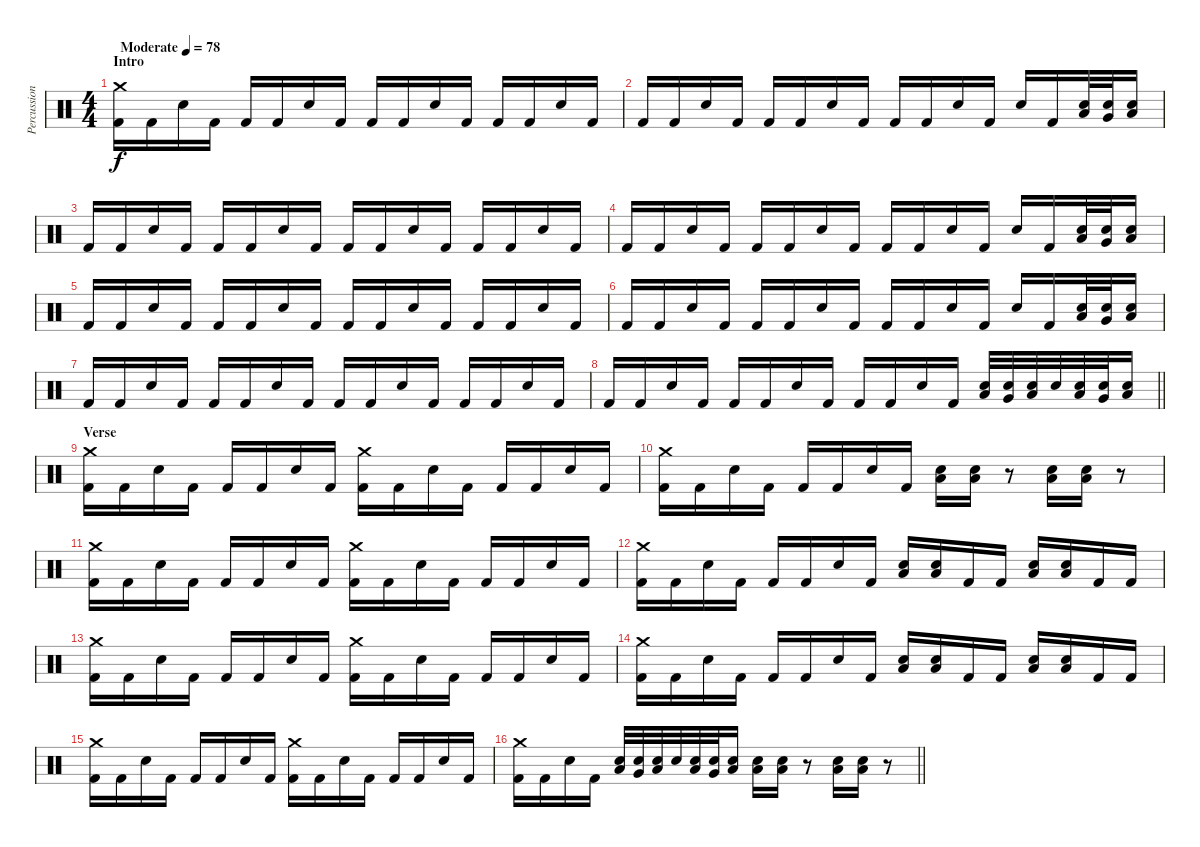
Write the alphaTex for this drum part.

\track ("Percussion" "Percussion") {instrument percussion}
\staff {score}
\articulation defaults
\ts (4 4)
\section ("" "Intro")
\tempo (78 "Moderate")
\clef neutral
\ks c
("Crash medium (hit)" "Kick (hit) 2").16{dy f} "Kick (hit) 2".16 "Snare (hit) 2".16 "Kick (hit) 2".16 "Kick (hit) 2".16 "Kick (hit) 2".16 "Snare (hit) 2".16 "Kick (hit) 2".16 "Kick (hit) 2".16 "Kick (hit) 2".16 "Snare (hit) 2".16 "Kick (hit) 2".16 "Kick (hit) 2".16 "Kick (hit) 2".16 "Snare (hit) 2".16 "Kick (hit) 2".16 |
"Kick (hit) 2".16 "Kick (hit) 2".16 "Snare (hit) 2".16 "Kick (hit) 2".16 "Kick (hit) 2".16 "Kick (hit) 2".16 "Snare (hit) 2".16 "Kick (hit) 2".16 "Kick (hit) 2".16 "Kick (hit) 2".16 "Snare (hit) 2".16 "Kick (hit) 2".16 "Snare (hit) 2".16 "Kick (hit) 2".16 ("Snare (hit) 2" "Low Tom (hit)").32 ("Snare (hit) 2" "Very Low Tom (hit)").32 ("Snare (hit) 2" "Low Floor Tom (hit)").16 |
"Kick (hit) 2".16 "Kick (hit) 2".16 "Snare (hit) 2".16 "Kick (hit) 2".16 "Kick (hit) 2".16 "Kick (hit) 2".16 "Snare (hit) 2".16 "Kick (hit) 2".16 "Kick (hit) 2".16 "Kick (hit) 2".16 "Snare (hit) 2".16 "Kick (hit) 2".16 "Kick (hit) 2".16 "Kick (hit) 2".16 "Snare (hit) 2".16 "Kick (hit) 2".16 |
"Kick (hit) 2".16 "Kick (hit) 2".16 "Snare (hit) 2".16 "Kick (hit) 2".16 "Kick (hit) 2".16 "Kick (hit) 2".16 "Snare (hit) 2".16 "Kick (hit) 2".16 "Kick (hit) 2".16 "Kick (hit) 2".16 "Snare (hit) 2".16 "Kick (hit) 2".16 "Snare (hit) 2".16 "Kick (hit) 2".16 ("Snare (hit) 2" "Low Tom (hit)").32 ("Snare (hit) 2" "Very Low Tom (hit)").32 ("Snare (hit) 2" "Low Floor Tom (hit)").16 |
"Kick (hit) 2".16 "Kick (hit) 2".16 "Snare (hit) 2".16 "Kick (hit) 2".16 "Kick (hit) 2".16 "Kick (hit) 2".16 "Snare (hit) 2".16 "Kick (hit) 2".16 "Kick (hit) 2".16 "Kick (hit) 2".16 "Snare (hit) 2".16 "Kick (hit) 2".16 "Kick (hit) 2".16 "Kick (hit) 2".16 "Snare (hit) 2".16 "Kick (hit) 2".16 |
"Kick (hit) 2".16 "Kick (hit) 2".16 "Snare (hit) 2".16 "Kick (hit) 2".16 "Kick (hit) 2".16 "Kick (hit) 2".16 "Snare (hit) 2".16 "Kick (hit) 2".16 "Kick (hit) 2".16 "Kick (hit) 2".16 "Snare (hit) 2".16 "Kick (hit) 2".16 "Snare (hit) 2".16 "Kick (hit) 2".16 ("Snare (hit) 2" "Low Tom (hit)").32 ("Snare (hit) 2" "Very Low Tom (hit)").32 ("Snare (hit) 2" "Low Floor Tom (hit)").16 |
"Kick (hit) 2".16 "Kick (hit) 2".16 "Snare (hit) 2".16 "Kick (hit) 2".16 "Kick (hit) 2".16 "Kick (hit) 2".16 "Snare (hit) 2".16 "Kick (hit) 2".16 "Kick (hit) 2".16 "Kick (hit) 2".16 "Snare (hit) 2".16 "Kick (hit) 2".16 "Kick (hit) 2".16 "Kick (hit) 2".16 "Snare (hit) 2".16 "Kick (hit) 2".16 |
\barLineRight lightlight "Kick (hit) 2".16 "Kick (hit) 2".16 "Snare (hit) 2".16 "Kick (hit) 2".16 "Kick (hit) 2".16 "Kick (hit) 2".16 "Snare (hit) 2".16 "Kick (hit) 2".16 "Kick (hit) 2".16 "Kick (hit) 2".16 "Snare (hit) 2".16 "Kick (hit) 2".16
("Snare (hit) 2" "Low Tom (hit)").32 ("Snare (hit) 2" "Very Low Tom (hit)").32 ("Snare (hit) 2" "Low Floor Tom (hit)").32 "Snare (hit) 2".32 ("Snare (hit) 2" "Low Tom (hit)").32 ("Snare (hit) 2" "Very Low Tom (hit)").32 ("Snare (hit) 2" "Low Floor Tom (hit)").16 |
\section ("" "Verse")
("Crash medium (hit)" "Kick (hit) 2").16 "Kick (hit) 2".16 "Snare (hit) 2".16 "Kick (hit) 2".16 "Kick (hit) 2".16 "Kick (hit) 2".16 "Snare (hit) 2".16 "Kick (hit) 2".16 ("Crash medium (hit)" "Kick (hit) 2").16 "Kick (hit) 2".16 "Snare (hit) 2".16 "Kick (hit) 2".16 "Kick (hit) 2".16 "Kick (hit) 2".16 "Snare (hit) 2".16 "Kick (hit) 2".16 |
("Crash medium (hit)" "Kick (hit) 2").16 "Kick (hit) 2".16 "Snare (hit) 2".16 "Kick (hit) 2".16 "Kick (hit) 2".16 "Kick (hit) 2".16 "Snare (hit) 2".16 "Kick (hit) 2".16 ("Electric Snare (hit)" "Low Tom (hit)").16 ("Electric Snare (hit)" "Low Tom (hit)").16 r.8 ("Electric Snare (hit)" "Low Floor Tom (hit)").16 ("Electric Snare (hit)" "Low Floor Tom (hit)").16 r.8 |
("Crash medium (hit)" "Kick (hit) 2").16 "Kick (hit) 2".16 "Snare (hit) 2".16 "Kick (hit) 2".16 "Kick (hit) 2".16 "Kick (hit) 2".16 "Snare (hit) 2".16 "Kick (hit) 2".16 ("Crash medium (hit)" "Kick (hit) 2").16 "Kick (hit) 2".16 "Snare (hit) 2".16 "Kick (hit) 2".16 "Kick (hit) 2".16 "Kick (hit) 2".16 "Snare (hit) 2".16 "Kick (hit) 2".16 |
("Crash medium (hit)" "Kick (hit) 2").16 "Kick (hit) 2".16 "Snare (hit) 2".16 "Kick (hit) 2".16 "Kick (hit) 2".16 "Kick (hit) 2".16 "Snare (hit) 2".16 "Kick (hit) 2".16 ("Electric Snare (hit)" "Low Tom (hit)").16 ("Electric Snare (hit)" "Low Tom (hit)").16 "Kick (hit) 2".16 "Kick (hit) 2".16 ("Electric Snare (hit)" "Low Floor Tom (hit)").16 ("Electric Snare (hit)" "Low Floor Tom (hit)").16 "Kick (hit) 2".16 "Kick (hit) 2".16 |
("Crash medium (hit)" "Kick (hit) 2").16 "Kick (hit) 2".16 "Snare (hit) 2".16 "Kick (hit) 2".16 "Kick (hit) 2".16 "Kick (hit) 2".16 "Snare (hit) 2".16 "Kick (hit) 2".16 ("Crash medium (hit)" "Kick (hit) 2").16 "Kick (hit) 2".16 "Snare (hit) 2".16 "Kick (hit) 2".16 "Kick (hit) 2".16 "Kick (hit) 2".16 "Snare (hit) 2".16 "Kick (hit) 2".16 |
("Crash medium (hit)" "Kick (hit) 2").16 "Kick (hit) 2".16 "Snare (hit) 2".16 "Kick (hit) 2".16 "Kick (hit) 2".16 "Kick (hit) 2".16 "Snare (hit) 2".16 "Kick (hit) 2".16 ("Electric Snare (hit)" "Low Tom (hit)").16 ("Electric Snare (hit)" "Low Tom (hit)").16 "Kick (hit) 2".16 "Kick (hit) 2".16 ("Electric Snare (hit)" "Low Floor Tom (hit)").16 ("Electric Snare (hit)" "Low Floor Tom (hit)").16 "Kick (hit) 2".16 "Kick (hit) 2".16 |
("Crash medium (hit)" "Kick (hit) 2").16 "Kick (hit) 2".16 "Snare (hit) 2".16 "Kick (hit) 2".16 "Kick (hit) 2".16 "Kick (hit) 2".16 "Snare (hit) 2".16 "Kick (hit) 2".16 ("Crash medium (hit)" "Kick (hit) 2").16 "Kick (hit) 2".16 "Snare (hit) 2".16 "Kick (hit) 2".16 "Kick (hit) 2".16 "Kick (hit) 2".16 "Snare (hit) 2".16 "Kick (hit) 2".16 |
\barLineRight lightlight
("Crash medium (hit)" "Kick (hit) 2").16 "Kick (hit) 2".16 "Snare (hit) 2".16 "Kick (hit) 2".16 ("Snare (hit) 2" "Low Tom (hit)").32 ("Snare (hit) 2" "Very Low Tom (hit)").32 ("Snare (hit) 2" "Low Floor Tom (hit)").32 "Snare (hit) 2".32 ("Snare (hit) 2" "Low Tom (hit)").32 ("Snare (hit) 2" "Very Low Tom (hit)").32 ("Snare (hit) 2" "Low Floor Tom (hit)").16 ("Electric Snare (hit)" "Low Tom (hit)").16 ("Electric Snare (hit)" "Low Tom (hit)").16 r.8 ("Electric Snare (hit)" "Low Floor Tom (hit)").16 ("Electric Snare (hit)" "Low Floor Tom (hit)").16 r.8
